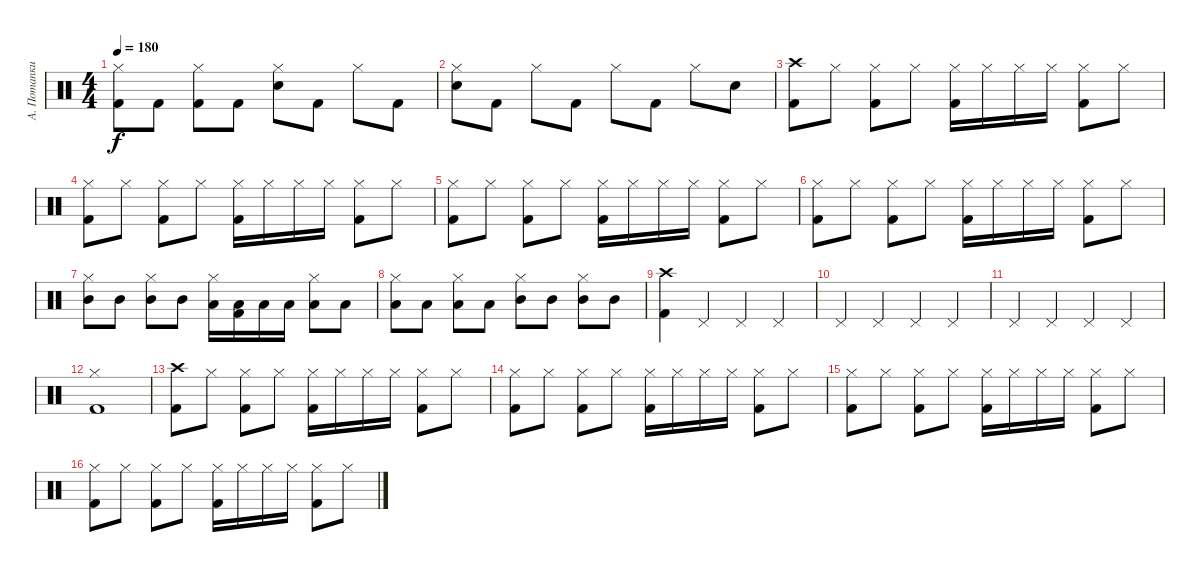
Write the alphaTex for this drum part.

\track ("А. Потапкин" "А. Потапки") {instrument percussion}
\staff {score}
\articulation defaults
\ts (4 4)
\tempo 180
\clef neutral
\ks c
("Hi-Hat (closed)" "Kick (hit) 2").8{dy f} "Kick (hit) 2".8 ("Hi-Hat (closed)" "Kick (hit) 2").8 "Kick (hit) 2".8 ("Hi-Hat (closed)" "Electric Snare (hit)").8 "Kick (hit) 2".8 "Hi-Hat (closed)".8 "Kick (hit) 2".8 |
("Hi-Hat (closed)" "Electric Snare (hit)").8 "Kick (hit) 2".8 "Hi-Hat (closed)".8 "Kick (hit) 2".8 "Hi-Hat (closed)".8 "Kick (hit) 2".8 "Hi-Hat (closed)".8 "Electric Snare (hit)".8 |
("Crash high (hit)" "Kick (hit) 2").8 "Hi-Hat (closed)".8 ("Hi-Hat (closed)" "Kick (hit) 2").8 "Hi-Hat (closed)".8 ("Hi-Hat (closed)" "Kick (hit) 2").16 "Hi-Hat (closed)".16 "Hi-Hat (closed)".16 "Hi-Hat (closed)".16 ("Hi-Hat (closed)" "Kick (hit) 2").8 "Hi-Hat (closed)".8 |
("Hi-Hat (closed)" "Kick (hit) 2").8 "Hi-Hat (closed)".8 ("Hi-Hat (closed)" "Kick (hit) 2").8 "Hi-Hat (closed)".8 ("Hi-Hat (closed)" "Kick (hit) 2").16 "Hi-Hat (closed)".16 "Hi-Hat (closed)".16 "Hi-Hat (closed)".16 ("Hi-Hat (closed)" "Kick (hit) 2").8 "Hi-Hat (closed)".8 |
("Hi-Hat (closed)" "Kick (hit) 2").8 "Hi-Hat (closed)".8 ("Hi-Hat (closed)" "Kick (hit) 2").8 "Hi-Hat (closed)".8 ("Hi-Hat (closed)" "Kick (hit) 2").16 "Hi-Hat (closed)".16 "Hi-Hat (closed)".16 "Hi-Hat (closed)".16 ("Hi-Hat (closed)" "Kick (hit) 2").8 "Hi-Hat (closed)".8 |
("Hi-Hat (closed)" "Kick (hit) 2").8 "Hi-Hat (closed)".8 ("Hi-Hat (closed)" "Kick (hit) 2").8 "Hi-Hat (closed)".8 ("Hi-Hat (closed)" "Kick (hit) 2").16 "Hi-Hat (closed)".16 "Hi-Hat (closed)".16 "Hi-Hat (closed)".16 ("Hi-Hat (closed)" "Kick (hit) 2").8 "Hi-Hat (closed)".8 |
("Hi-Hat (closed)" "Mid Tom (hit)").8 "Mid Tom (hit)".8 ("Hi-Hat (closed)" "Mid Tom (hit)").8 "Mid Tom (hit)".8 ("Hi-Hat (closed)" "Low Tom (hit)").16 ("Low Tom (hit)" "Kick (hit) 2").16 "Low Tom (hit)".16 "Low Tom (hit)".16 ("Hi-Hat (closed)" "Low Tom (hit)").8 "Low Tom (hit)".8 |
("Hi-Hat (closed)" "Low Floor Tom (hit)").8 "Low Floor Tom (hit)".8 ("Hi-Hat (closed)" "Low Floor Tom (hit)").8 "Low Floor Tom (hit)".8 ("Hi-Hat (closed)" "Mid Tom (hit)").8 "Mid Tom (hit)".8 ("Hi-Hat (closed)" "Mid Tom (hit)").8 "Mid Tom (hit)".8 |
("Crash high (hit)" "Kick (hit) 2").4 "Pedal Hi-Hat (hit)".4 "Pedal Hi-Hat (hit)".4 "Pedal Hi-Hat (hit)".4 |
"Pedal Hi-Hat (hit)".4 "Pedal Hi-Hat (hit)".4 "Pedal Hi-Hat (hit)".4 "Pedal Hi-Hat (hit)".4 |
"Pedal Hi-Hat (hit)".4 "Pedal Hi-Hat (hit)".4 "Pedal Hi-Hat (hit)".4 "Pedal Hi-Hat (hit)".4 |
("Hi-Hat (closed)" "Kick (hit) 2").1 |
("Crash high (hit)" "Kick (hit) 2").8 "Hi-Hat (closed)".8 ("Hi-Hat (closed)" "Kick (hit) 2").8 "Hi-Hat (closed)".8 ("Hi-Hat (closed)" "Kick (hit) 2").16 "Hi-Hat (closed)".16 "Hi-Hat (closed)".16 "Hi-Hat (closed)".16 ("Hi-Hat (closed)" "Kick (hit) 2").8 "Hi-Hat (closed)".8 |
("Hi-Hat (closed)" "Kick (hit) 2").8 "Hi-Hat (closed)".8 ("Hi-Hat (closed)" "Kick (hit) 2").8 "Hi-Hat (closed)".8 ("Hi-Hat (closed)" "Kick (hit) 2").16 "Hi-Hat (closed)".16 "Hi-Hat (closed)".16 "Hi-Hat (closed)".16 ("Hi-Hat (closed)" "Kick (hit) 2").8 "Hi-Hat (closed)".8 |
("Hi-Hat (closed)" "Kick (hit) 2").8 "Hi-Hat (closed)".8 ("Hi-Hat (closed)" "Kick (hit) 2").8 "Hi-Hat (closed)".8 ("Hi-Hat (closed)" "Kick (hit) 2").16 "Hi-Hat (closed)".16 "Hi-Hat (closed)".16 "Hi-Hat (closed)".16 ("Hi-Hat (closed)" "Kick (hit) 2").8 "Hi-Hat (closed)".8 |
("Hi-Hat (closed)" "Kick (hit) 2").8 "Hi-Hat (closed)".8 ("Hi-Hat (closed)" "Kick (hit) 2").8 "Hi-Hat (closed)".8 ("Hi-Hat (closed)" "Kick (hit) 2").16 "Hi-Hat (closed)".16 "Hi-Hat (closed)".16 "Hi-Hat (closed)".16 ("Hi-Hat (closed)" "Kick (hit) 2").8 "Hi-Hat (closed)".8
